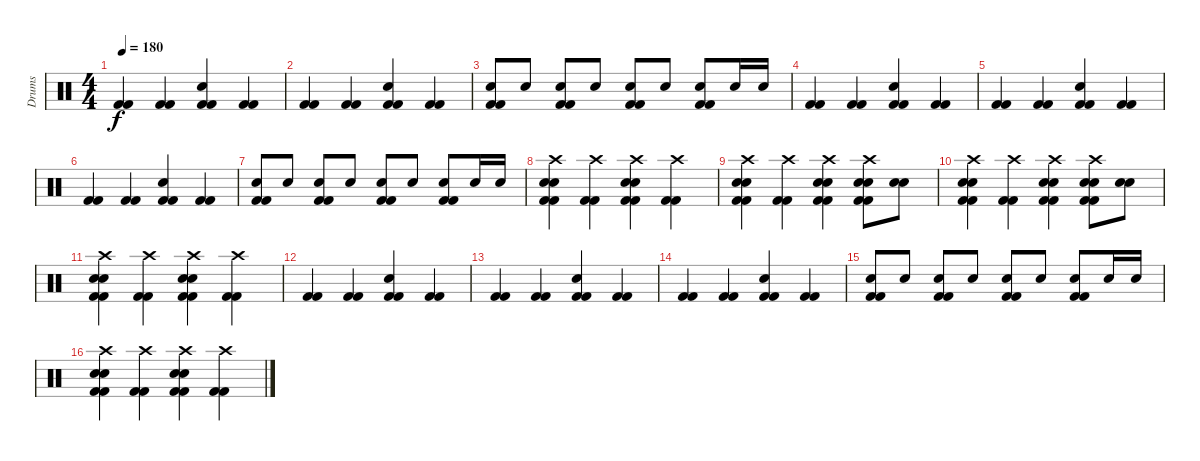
\track ("Drums" "Drums") {instrument percussion}
\staff {score}
\articulation defaults
\ts (4 4)
\tempo 180
\clef neutral
\ks c
("Kick (hit) 2" "Kick (hit) 2").4{dy f} ("Kick (hit) 2" "Kick (hit) 2").4 ("Snare (hit) 2" "Kick (hit) 2" "Kick (hit) 2").4 ("Kick (hit) 2" "Kick (hit) 2").4 |
("Kick (hit) 2" "Kick (hit) 2").4 ("Kick (hit) 2" "Kick (hit) 2").4 ("Snare (hit) 2" "Kick (hit) 2" "Kick (hit) 2").4 ("Kick (hit) 2" "Kick (hit) 2").4 |
("Snare (hit) 2" "Kick (hit) 2" "Kick (hit) 2").8 "Snare (hit) 2".8 ("Snare (hit) 2" "Kick (hit) 2" "Kick (hit) 2").8 "Snare (hit) 2".8 ("Snare (hit) 2" "Kick (hit) 2" "Kick (hit) 2").8 "Snare (hit) 2".8 ("Snare (hit) 2" "Kick (hit) 2" "Kick (hit) 2").8 "Snare (hit) 2".16 "Snare (hit) 2".16 |
("Kick (hit) 2" "Kick (hit) 2").4 ("Kick (hit) 2" "Kick (hit) 2").4 ("Snare (hit) 2" "Kick (hit) 2" "Kick (hit) 2").4 ("Kick (hit) 2" "Kick (hit) 2").4 |
("Kick (hit) 2" "Kick (hit) 2").4 ("Kick (hit) 2" "Kick (hit) 2").4 ("Snare (hit) 2" "Kick (hit) 2" "Kick (hit) 2").4 ("Kick (hit) 2" "Kick (hit) 2").4 |
("Kick (hit) 2" "Kick (hit) 2").4 ("Kick (hit) 2" "Kick (hit) 2").4 ("Snare (hit) 2" "Kick (hit) 2" "Kick (hit) 2").4 ("Kick (hit) 2" "Kick (hit) 2").4 |
("Snare (hit) 2" "Kick (hit) 2" "Kick (hit) 2").8 "Snare (hit) 2".8 ("Snare (hit) 2" "Kick (hit) 2" "Kick (hit) 2").8 "Snare (hit) 2".8 ("Snare (hit) 2" "Kick (hit) 2" "Kick (hit) 2").8 "Snare (hit) 2".8 ("Snare (hit) 2" "Kick (hit) 2" "Kick (hit) 2").8 "Snare (hit) 2".16 "Snare (hit) 2".16 |
("Crash high (hit)" "Snare (hit) 2" "Snare (hit) 2" "Kick (hit) 2" "Kick (hit) 2").4 ("Crash high (hit)" "Kick (hit) 2" "Kick (hit) 2").4 ("Crash high (hit)" "Snare (hit) 2" "Snare (hit) 2" "Kick (hit) 2" "Kick (hit) 2").4 ("Crash high (hit)" "Kick (hit) 2" "Kick (hit) 2").4 |
("Crash high (hit)" "Snare (hit) 2" "Snare (hit) 2" "Kick (hit) 2" "Kick (hit) 2").4 ("Crash high (hit)" "Kick (hit) 2" "Kick (hit) 2").4 ("Crash high (hit)" "Snare (hit) 2" "Snare (hit) 2" "Kick (hit) 2" "Kick (hit) 2").4 ("Crash high (hit)" "Snare (hit) 2" "Snare (hit) 2" "Kick (hit) 2" "Kick (hit) 2").8 ("Snare (hit) 2" "Snare (hit) 2").8 |
("Crash high (hit)" "Snare (hit) 2" "Snare (hit) 2" "Kick (hit) 2" "Kick (hit) 2").4 ("Crash high (hit)" "Kick (hit) 2" "Kick (hit) 2").4 ("Crash high (hit)" "Snare (hit) 2" "Snare (hit) 2" "Kick (hit) 2" "Kick (hit) 2").4 ("Crash high (hit)" "Snare (hit) 2" "Snare (hit) 2" "Kick (hit) 2" "Kick (hit) 2").8 ("Snare (hit) 2" "Snare (hit) 2").8 |
("Crash high (hit)" "Snare (hit) 2" "Snare (hit) 2" "Kick (hit) 2" "Kick (hit) 2").4 ("Crash high (hit)" "Kick (hit) 2" "Kick (hit) 2").4 ("Crash high (hit)" "Snare (hit) 2" "Snare (hit) 2" "Kick (hit) 2" "Kick (hit) 2").4 ("Crash high (hit)" "Kick (hit) 2" "Kick (hit) 2").4 |
("Kick (hit) 2" "Kick (hit) 2").4 ("Kick (hit) 2" "Kick (hit) 2").4 ("Snare (hit) 2" "Kick (hit) 2" "Kick (hit) 2").4 ("Kick (hit) 2" "Kick (hit) 2").4 |
("Kick (hit) 2" "Kick (hit) 2").4 ("Kick (hit) 2" "Kick (hit) 2").4 ("Snare (hit) 2" "Kick (hit) 2" "Kick (hit) 2").4 ("Kick (hit) 2" "Kick (hit) 2").4 |
("Kick (hit) 2" "Kick (hit) 2").4 ("Kick (hit) 2" "Kick (hit) 2").4 ("Snare (hit) 2" "Kick (hit) 2" "Kick (hit) 2").4 ("Kick (hit) 2" "Kick (hit) 2").4 |
("Snare (hit) 2" "Kick (hit) 2" "Kick (hit) 2").8 "Snare (hit) 2".8 ("Snare (hit) 2" "Kick (hit) 2" "Kick (hit) 2").8 "Snare (hit) 2".8 ("Snare (hit) 2" "Kick (hit) 2" "Kick (hit) 2").8 "Snare (hit) 2".8 ("Snare (hit) 2" "Kick (hit) 2" "Kick (hit) 2").8 "Snare (hit) 2".16 "Snare (hit) 2".16 |
("Crash high (hit)" "Snare (hit) 2" "Snare (hit) 2" "Kick (hit) 2" "Kick (hit) 2").4 ("Crash high (hit)" "Kick (hit) 2" "Kick (hit) 2").4 ("Crash high (hit)" "Snare (hit) 2" "Snare (hit) 2" "Kick (hit) 2" "Kick (hit) 2").4 ("Crash high (hit)" "Kick (hit) 2" "Kick (hit) 2").4
